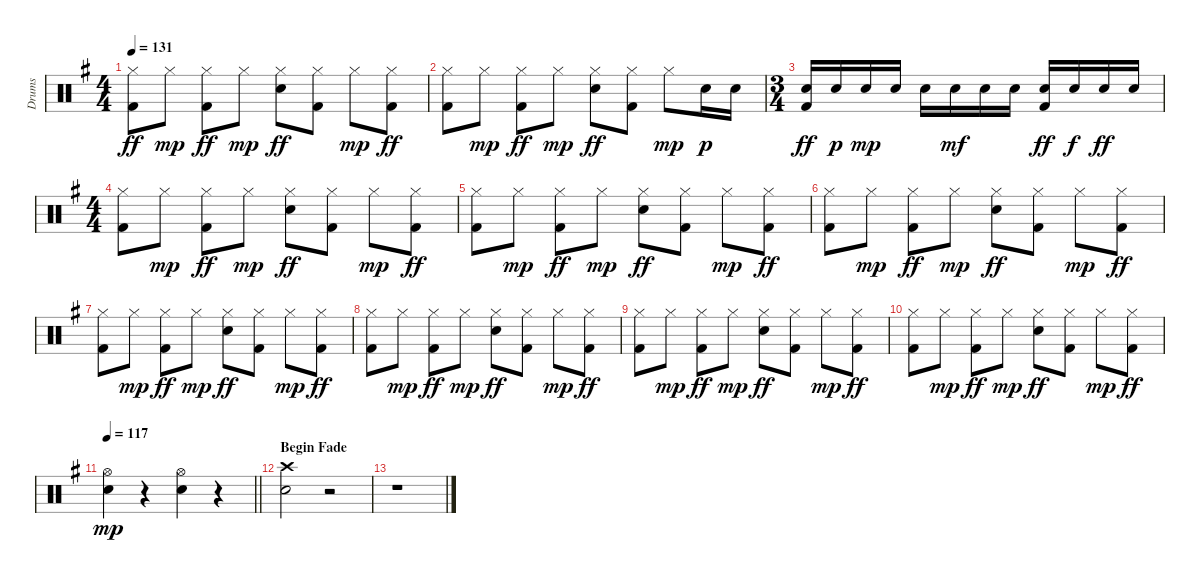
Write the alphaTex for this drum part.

\track ("Drums" "Drums") {instrument percussion}
\staff {score}
\articulation defaults
\ts (4 4)
\tempo 131
\clef neutral
\ks g
("Hi-Hat (closed)" "Kick (hit) 2").8{dy ff} "Hi-Hat (closed)".8{dy mp} ("Hi-Hat (closed)" "Kick (hit) 2").8{dy ff} "Hi-Hat (closed)".8{dy mp} ("Hi-Hat (closed)" "Snare (hit) 2").8{dy ff} ("Hi-Hat (closed)" "Kick (hit) 2").8 "Hi-Hat (closed)".8{dy mp} ("Hi-Hat (closed)" "Kick (hit) 2").8{dy ff} |
("Hi-Hat (closed)" "Kick (hit) 2").8 "Hi-Hat (closed)".8{dy mp} ("Hi-Hat (closed)" "Kick (hit) 2").8{dy ff} "Hi-Hat (closed)".8{dy mp} ("Hi-Hat (closed)" "Snare (hit) 2").8{dy ff} ("Hi-Hat (closed)" "Kick (hit) 2").8 "Hi-Hat (closed)".8{dy mp} "Snare (hit) 2".16{dy p} "Snare (hit) 2".16 |
\ts (3 4)
("Snare (hit) 2" "Kick (hit) 2").16{dy ff} "Snare (hit) 2".16{dy p} "Snare (hit) 2".16{dy mp} "Snare (hit) 2".16 "Snare (hit) 2".16 "Snare (hit) 2".16{dy mf} "Snare (hit) 2".16 "Snare (hit) 2".16 ("Snare (hit) 2" "Kick (hit) 2").16{dy ff} "Snare (hit) 2".16{dy f} "Snare (hit) 2".16{dy ff} "Snare (hit) 2".16 |
\ts (4 4)
("Hi-Hat (closed)" "Kick (hit) 2").8 "Hi-Hat (closed)".8{dy mp} ("Hi-Hat (closed)" "Kick (hit) 2").8{dy ff} "Hi-Hat (closed)".8{dy mp} ("Hi-Hat (closed)" "Snare (hit) 2").8{dy ff} ("Hi-Hat (closed)" "Kick (hit) 2").8 "Hi-Hat (closed)".8{dy mp} ("Hi-Hat (closed)" "Kick (hit) 2").8{dy ff} |
("Hi-Hat (closed)" "Kick (hit) 2").8 "Hi-Hat (closed)".8{dy mp} ("Hi-Hat (closed)" "Kick (hit) 2").8{dy ff} "Hi-Hat (closed)".8{dy mp} ("Hi-Hat (closed)" "Snare (hit) 2").8{dy ff} ("Hi-Hat (closed)" "Kick (hit) 2").8 "Hi-Hat (closed)".8{dy mp} ("Hi-Hat (closed)" "Kick (hit) 2").8{dy ff} |
("Hi-Hat (closed)" "Kick (hit) 2").8 "Hi-Hat (closed)".8{dy mp} ("Hi-Hat (closed)" "Kick (hit) 2").8{dy ff} "Hi-Hat (closed)".8{dy mp} ("Hi-Hat (closed)" "Snare (hit) 2").8{dy ff} ("Hi-Hat (closed)" "Kick (hit) 2").8 "Hi-Hat (closed)".8{dy mp} ("Hi-Hat (closed)" "Kick (hit) 2").8{dy ff} |
("Hi-Hat (closed)" "Kick (hit) 2").8 "Hi-Hat (closed)".8{dy mp} ("Hi-Hat (closed)" "Kick (hit) 2").8{dy ff} "Hi-Hat (closed)".8{dy mp} ("Hi-Hat (closed)" "Snare (hit) 2").8{dy ff} ("Hi-Hat (closed)" "Kick (hit) 2").8 "Hi-Hat (closed)".8{dy mp} ("Hi-Hat (closed)" "Kick (hit) 2").8{dy ff} |
("Hi-Hat (closed)" "Kick (hit) 2").8 "Hi-Hat (closed)".8{dy mp} ("Hi-Hat (closed)" "Kick (hit) 2").8{dy ff} "Hi-Hat (closed)".8{dy mp} ("Hi-Hat (closed)" "Snare (hit) 2").8{dy ff} ("Hi-Hat (closed)" "Kick (hit) 2").8 "Hi-Hat (closed)".8{dy mp} ("Hi-Hat (closed)" "Kick (hit) 2").8{dy ff} |
("Hi-Hat (closed)" "Kick (hit) 2").8 "Hi-Hat (closed)".8{dy mp} ("Hi-Hat (closed)" "Kick (hit) 2").8{dy ff} "Hi-Hat (closed)".8{dy mp} ("Hi-Hat (closed)" "Snare (hit) 2").8{dy ff} ("Hi-Hat (closed)" "Kick (hit) 2").8 "Hi-Hat (closed)".8{dy mp} ("Hi-Hat (closed)" "Kick (hit) 2").8{dy ff} |
("Hi-Hat (closed)" "Kick (hit) 2").8 "Hi-Hat (closed)".8{dy mp} ("Hi-Hat (closed)" "Kick (hit) 2").8{dy ff} "Hi-Hat (closed)".8{dy mp} ("Hi-Hat (closed)" "Snare (hit) 2").8{dy ff} ("Hi-Hat (closed)" "Kick (hit) 2").8 "Hi-Hat (closed)".8{dy mp} ("Hi-Hat (closed)" "Kick (hit) 2").8{dy ff} |
\tempo 117
\barLineRight lightlight
("Hi-Hat (open)" "Snare (hit) 2").4{dy mp} r.4 ("Hi-Hat (open)" "Snare (hit) 2").4 r.4 |
\section ("" "Begin Fade")
("Crash high (hit)" "Snare (hit) 2").2 r.2 |
r.1
